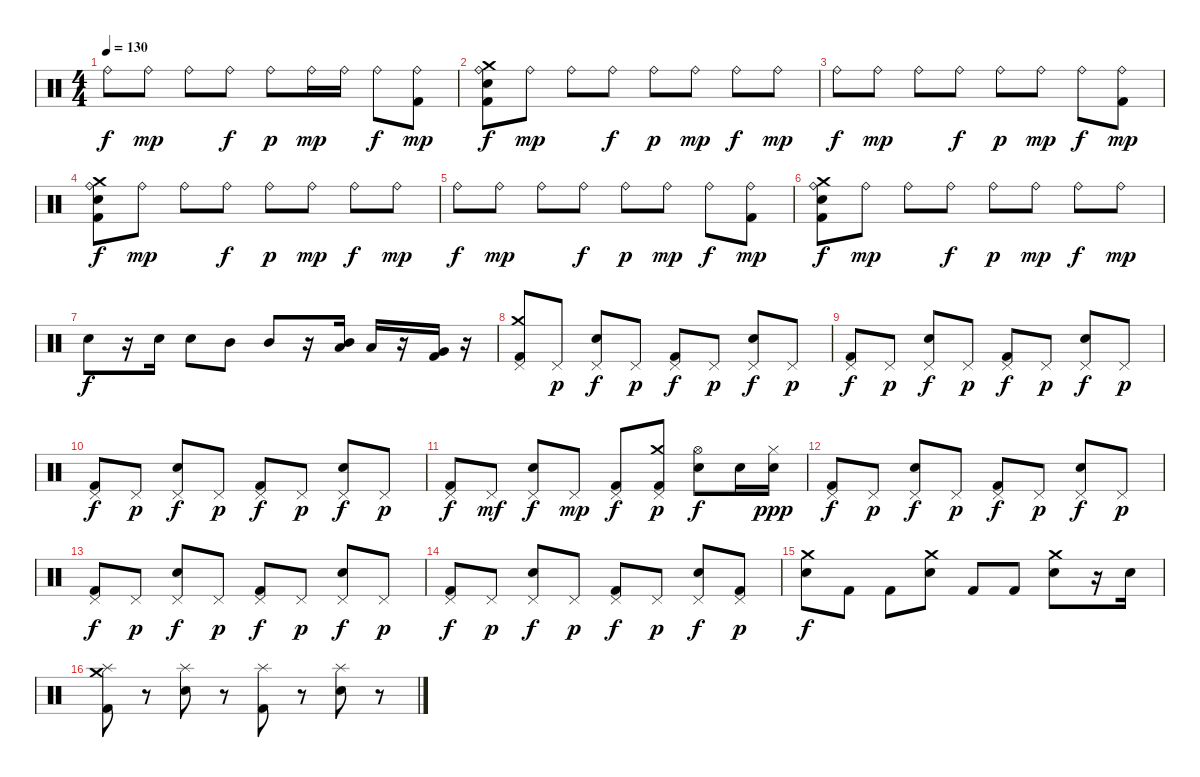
\track "" {instrument percussion}
\staff {score}
\articulation defaults
\ts (4 4)
\tempo 130
\clef neutral
\ks c "Ride (bell)".8{dy f} "Ride (bell)".8{dy mp} "Ride (bell)".8 "Ride (bell)".8{dy f} "Ride (bell)".8{dy p} "Ride (bell)".16{dy mp} "Ride (bell)".16 "Ride (bell)".8{dy f}
("Kick (hit) 2" "Ride (bell)").8{dy mp} |
("Snare (hit) 2" "Crash medium (hit)" "Kick (hit) 2" "Ride (bell)").8{dy f} "Ride (bell)".8{dy mp} "Ride (bell)".8 "Ride (bell)".8{dy f} "Ride (bell)".8{dy p} "Ride (bell)".8{dy mp} "Ride (bell)".8{dy f} "Ride (bell)".8{dy mp} |
"Ride (bell)".8{dy f} "Ride (bell)".8{dy mp} "Ride (bell)".8 "Ride (bell)".8{dy f} "Ride (bell)".8{dy p} "Ride (bell)".8{dy mp} "Ride (bell)".8{dy f} ("Kick (hit) 2" "Ride (bell)").8{dy mp} |
("Crash medium (hit)" "Snare (hit) 2" "Kick (hit) 2" "Ride (bell)").8{dy f} "Ride (bell)".8{dy mp} "Ride (bell)".8 "Ride (bell)".8{dy f} "Ride (bell)".8{dy p} "Ride (bell)".8{dy mp} "Ride (bell)".8{dy f} "Ride (bell)".8{dy mp} |
"Ride (bell)".8{dy f} "Ride (bell)".8{dy mp} "Ride (bell)".8 "Ride (bell)".8{dy f} "Ride (bell)".8{dy p} "Ride (bell)".8{dy mp} "Ride (bell)".8{dy f} ("Kick (hit) 2" "Ride (bell)").8{dy mp} |
("Crash medium (hit)" "Snare (hit) 2" "Kick (hit) 2" "Ride (bell)").8{dy f} "Ride (bell)".8{dy mp} "Ride (bell)".8 "Ride (bell)".8{dy f} "Ride (bell)".8{dy p} "Ride (bell)".8{dy mp} "Ride (bell)".8{dy f} "Ride (bell)".8{dy mp} |
"Snare (hit) 2".8{dy f} r.16 "Snare (hit) 2".16 "Snare (hit) 2".8 "Mid Tom (hit)".8 "Mid Tom (hit)".8 r.16 ("Mid Tom (hit)" "Low Tom (hit)").16 "Low Tom (hit)".16 r.16 ("Kick (hit) 2" "Very Low Tom (hit)").16 r.16 |
("Pedal Hi-Hat (hit)" "Crash medium (hit)" "Kick (hit) 2").8 "Pedal Hi-Hat (hit)".8{dy p} ("Pedal Hi-Hat (hit)" "Snare (hit) 2").8{dy f} "Pedal Hi-Hat (hit)".8{dy p} ("Pedal Hi-Hat (hit)" "Kick (hit) 2").8{dy f} "Pedal Hi-Hat (hit)".8{dy p} ("Pedal Hi-Hat (hit)" "Snare (hit) 2").8{dy f} "Pedal Hi-Hat (hit)".8{dy p} |
("Pedal Hi-Hat (hit)" "Kick (hit) 2").8{dy f} "Pedal Hi-Hat (hit)".8{dy p} ("Pedal Hi-Hat (hit)" "Snare (hit) 2").8{dy f} "Pedal Hi-Hat (hit)".8{dy p} ("Pedal Hi-Hat (hit)" "Kick (hit) 2").8{dy f} "Pedal Hi-Hat (hit)".8{dy p} ("Pedal Hi-Hat (hit)" "Snare (hit) 2").8{dy f} "Pedal Hi-Hat (hit)".8{dy p} |
("Pedal Hi-Hat (hit)" "Kick (hit) 2").8{dy f} "Pedal Hi-Hat (hit)".8{dy p} ("Pedal Hi-Hat (hit)" "Snare (hit) 2").8{dy f} "Pedal Hi-Hat (hit)".8{dy p} ("Pedal Hi-Hat (hit)" "Kick (hit) 2").8{dy f} "Pedal Hi-Hat (hit)".8{dy p} ("Pedal Hi-Hat (hit)" "Snare (hit) 2").8{dy f} "Pedal Hi-Hat (hit)".8{dy p} |
("Pedal Hi-Hat (hit)" "Kick (hit) 2").8{dy f} "Pedal Hi-Hat (hit)".8{dy mf} ("Pedal Hi-Hat (hit)" "Snare (hit) 2").8{dy f} "Pedal Hi-Hat (hit)".8{dy mp} ("Pedal Hi-Hat (hit)" "Kick (hit) 2").8{dy f} ("Crash medium (hit)" "Pedal Hi-Hat (hit)" "Kick (hit) 2").8{dy p} ("Hi-Hat (open)" "Snare (hit) 2").8{dy f} "Snare (hit) 2".16 ("Hi-Hat (closed)" "Snare (hit) 2").16{dy ppp} |
("Pedal Hi-Hat (hit)" "Kick (hit) 2").8{dy f} "Pedal Hi-Hat (hit)".8{dy p} ("Pedal Hi-Hat (hit)" "Snare (hit) 2").8{dy f} "Pedal Hi-Hat (hit)".8{dy p} ("Pedal Hi-Hat (hit)" "Kick (hit) 2").8{dy f} "Pedal Hi-Hat (hit)".8{dy p} ("Pedal Hi-Hat (hit)" "Snare (hit) 2").8{dy f} "Pedal Hi-Hat (hit)".8{dy p} |
("Pedal Hi-Hat (hit)" "Kick (hit) 2").8{dy f} "Pedal Hi-Hat (hit)".8{dy p} ("Pedal Hi-Hat (hit)" "Snare (hit) 2").8{dy f} "Pedal Hi-Hat (hit)".8{dy p} ("Pedal Hi-Hat (hit)" "Kick (hit) 2").8{dy f} "Pedal Hi-Hat (hit)".8{dy p} ("Pedal Hi-Hat (hit)" "Snare (hit) 2").8{dy f} "Pedal Hi-Hat (hit)".8{dy p} |
("Pedal Hi-Hat (hit)" "Kick (hit) 2").8{dy f} "Pedal Hi-Hat (hit)".8{dy p} ("Pedal Hi-Hat (hit)" "Snare (hit) 2").8{dy f} "Pedal Hi-Hat (hit)".8{dy p} ("Pedal Hi-Hat (hit)" "Kick (hit) 2").8{dy f} "Pedal Hi-Hat (hit)".8{dy p} ("Pedal Hi-Hat (hit)" "Snare (hit) 2").8{dy f} ("Kick (hit) 2" "Pedal Hi-Hat (hit)").8{dy p} |
("Crash medium (hit)" "Snare (hit) 2").8{dy f} "Kick (hit) 2".8 "Kick (hit) 2".8 ("Crash medium (hit)" "Snare (hit) 2").8 "Kick (hit) 2".8 "Kick (hit) 2".8 ("Crash medium (hit)" "Snare (hit) 2").8 r.16 "Snare (hit) 2".16 |
("Kick (hit) 2" "Splash (hit)" "Crash medium (hit)").8 r.8 ("Splash (hit)" "Snare (hit) 2").8 r.8 ("Splash (hit)" "Kick (hit) 2").8 r.8 ("Splash (hit)" "Snare (hit) 2").8 r.8
